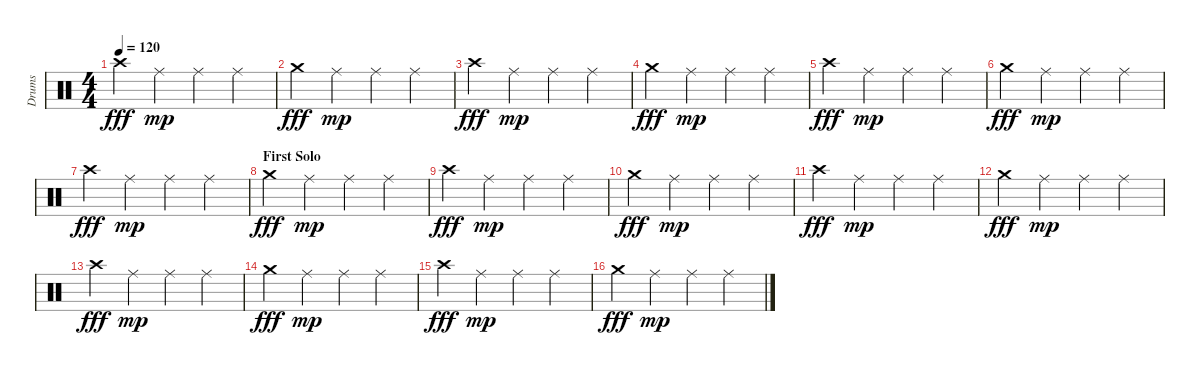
\track ("Drums" "Drums") {instrument percussion}
\staff {score}
\articulation defaults
\ts (4 4)
\tempo 120
\clef neutral
\ks c "Crash high (hit)".4{dy fff} "Ride (middle)".4{dy mp} "Ride (middle)".4 "Ride (middle)".4
|
"Crash medium (hit)".4{dy fff} "Ride (middle)".4{dy mp} "Ride (middle)".4 "Ride (middle)".4 |
"Crash high (hit)".4{dy fff} "Ride (middle)".4{dy mp} "Ride (middle)".4 "Ride (middle)".4 |
"Crash medium (hit)".4{dy fff} "Ride (middle)".4{dy mp} "Ride (middle)".4 "Ride (middle)".4 |
"Crash high (hit)".4{dy fff} "Ride (middle)".4{dy mp} "Ride (middle)".4 "Ride (middle)".4 |
"Crash medium (hit)".4{dy fff} "Ride (middle)".4{dy mp} "Ride (middle)".4 "Ride (middle)".4 |
"Crash high (hit)".4{dy fff} "Ride (middle)".4{dy mp} "Ride (middle)".4 "Ride (middle)".4 |
\section ("" "First Solo")
"Crash medium (hit)".4{dy fff} "Ride (middle)".4{dy mp} "Ride (middle)".4 "Ride (middle)".4 |
"Crash high (hit)".4{dy fff} "Ride (middle)".4{dy mp} "Ride (middle)".4 "Ride (middle)".4 |
"Crash medium (hit)".4{dy fff} "Ride (middle)".4{dy mp} "Ride (middle)".4 "Ride (middle)".4 |
"Crash high (hit)".4{dy fff} "Ride (middle)".4{dy mp} "Ride (middle)".4 "Ride (middle)".4 |
"Crash medium (hit)".4{dy fff} "Ride (middle)".4{dy mp} "Ride (middle)".4 "Ride (middle)".4 |
"Crash high (hit)".4{dy fff} "Ride (middle)".4{dy mp} "Ride (middle)".4 "Ride (middle)".4 |
"Crash medium (hit)".4{dy fff} "Ride (middle)".4{dy mp} "Ride (middle)".4 "Ride (middle)".4 |
"Crash high (hit)".4{dy fff} "Ride (middle)".4{dy mp} "Ride (middle)".4 "Ride (middle)".4 |
"Crash medium (hit)".4{dy fff} "Ride (middle)".4{dy mp} "Ride (middle)".4 "Ride (middle)".4
